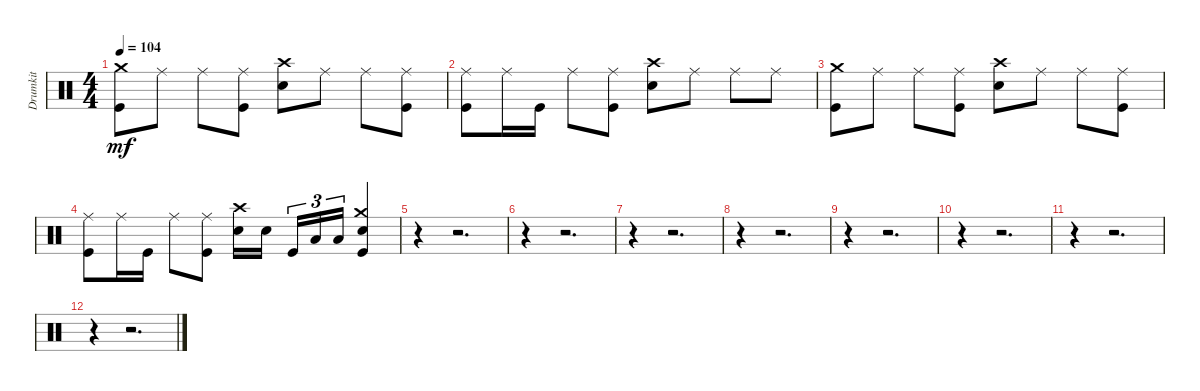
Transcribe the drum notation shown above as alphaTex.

\track ("Drumkit" "Drumkit") {instrument percussion}
\staff {score}
\articulation defaults
\ts (4 4)
\tempo 104
\clef neutral
\ks c
("Kick (hit)" "Crash medium (hit)").8{dy mf} "Ride (middle)".8 "Ride (middle)".8 ("Ride (middle)" "Kick (hit)").8 ("Snare (hit) 2" "Crash high (hit)").8 "Ride (middle)".8 "Ride (middle)".8 ("Ride (middle)" "Kick (hit)").8 |
("Ride (middle)" "Kick (hit)").8 "Ride (middle)".16 "Kick (hit)".16 "Ride (middle)".8 ("Ride (middle)" "Kick (hit)").8 ("Snare (hit) 2" "Crash high (hit)").8 "Ride (middle)".8 "Ride (middle)".8 "Ride (middle)".8 |
("Kick (hit)" "Crash medium (hit)").8 "Ride (middle)".8 "Ride (middle)".8 ("Ride (middle)" "Kick (hit)").8 ("Snare (hit) 2" "Crash high (hit)").8 "Ride (middle)".8 "Ride (middle)".8 ("Ride (middle)" "Kick (hit)").8 |
("Ride (middle)" "Kick (hit)").8 "Ride (middle)".16 "Kick (hit)".16 "Ride (middle)".8 ("Ride (middle)" "Kick (hit)").8 ("Snare (hit) 2" "Crash high (hit)").16 "Snare (hit) 2".16{beam splitsecondary} "Kick (hit)".16{tu (3 2)} "Low Floor Tom (hit)".16{tu (3 2)} "Low Floor Tom (hit)".16{tu (3 2)} ("Crash medium (hit)" "Snare (hit) 2" "Kick (hit)").4 |
r.4 r.2{d} |
r.4 r.2{d} |
r.4 r.2{d} |
r.4 r.2{d} |
r.4 r.2{d} |
r.4 r.2{d} |
r.4 r.2{d} |
r.4 r.2{d}
